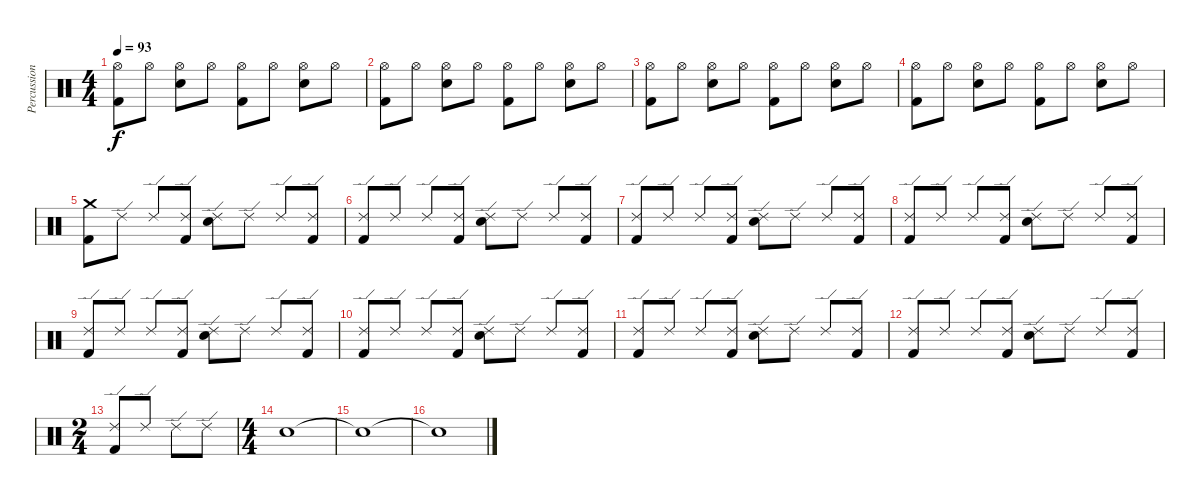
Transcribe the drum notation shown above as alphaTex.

\track ("Percussion" "Percussion") {instrument percussion}
\staff {score}
\articulation defaults
\ts (4 4)
\tempo 93
\clef neutral
\ks c
("Hi-Hat (open)" "Kick (hit) 2").8{dy f} "Hi-Hat (open)".8 ("Hi-Hat (open)" "Snare (hit) 2").8 "Hi-Hat (open)".8 ("Hi-Hat (open)" "Kick (hit) 2").8 "Hi-Hat (open)".8 ("Hi-Hat (open)" "Snare (hit) 2").8 "Hi-Hat (open)".8 |
("Hi-Hat (open)" "Kick (hit) 2").8 "Hi-Hat (open)".8 ("Hi-Hat (open)" "Snare (hit) 2").8 "Hi-Hat (open)".8 ("Hi-Hat (open)" "Kick (hit) 2").8 "Hi-Hat (open)".8 ("Hi-Hat (open)" "Snare (hit) 2").8 "Hi-Hat (open)".8 |
("Hi-Hat (open)" "Kick (hit) 2").8 "Hi-Hat (open)".8 ("Hi-Hat (open)" "Snare (hit) 2").8 "Hi-Hat (open)".8 ("Hi-Hat (open)" "Kick (hit) 2").8 "Hi-Hat (open)".8 ("Hi-Hat (open)" "Snare (hit) 2").8 "Hi-Hat (open)".8 |
("Hi-Hat (open)" "Kick (hit) 2").8 "Hi-Hat (open)".8 ("Hi-Hat (open)" "Snare (hit) 2").8 "Hi-Hat (open)".8 ("Hi-Hat (open)" "Kick (hit) 2").8 "Hi-Hat (open)".8 ("Hi-Hat (open)" "Snare (hit) 2").8 "Hi-Hat (open)".8 |
("Crash medium (hit)" "Kick (hit) 2").8 "Ride (edge) 2".8 "Ride (edge) 2".8 ("Ride (edge) 2" "Kick (hit) 2").8 ("Ride (edge) 2" "Snare (hit) 2").8 "Ride (edge) 2".8 "Ride (edge) 2".8 ("Ride (edge) 2" "Kick (hit) 2").8 |
("Ride (edge) 2" "Kick (hit) 2").8 "Ride (edge) 2".8 "Ride (edge) 2".8 ("Ride (edge) 2" "Kick (hit) 2").8 ("Ride (edge) 2" "Snare (hit) 2").8 "Ride (edge) 2".8 "Ride (edge) 2".8 ("Ride (edge) 2" "Kick (hit) 2").8 |
("Ride (edge) 2" "Kick (hit) 2").8 "Ride (edge) 2".8 "Ride (edge) 2".8 ("Ride (edge) 2" "Kick (hit) 2").8 ("Ride (edge) 2" "Snare (hit) 2").8 "Ride (edge) 2".8 "Ride (edge) 2".8 ("Ride (edge) 2" "Kick (hit) 2").8 |
("Ride (edge) 2" "Kick (hit) 2").8 "Ride (edge) 2".8 "Ride (edge) 2".8 ("Ride (edge) 2" "Kick (hit) 2").8 ("Ride (edge) 2" "Snare (hit) 2").8 "Ride (edge) 2".8 "Ride (edge) 2".8 ("Ride (edge) 2" "Kick (hit) 2").8 |
("Ride (edge) 2" "Kick (hit) 2").8 "Ride (edge) 2".8 "Ride (edge) 2".8 ("Ride (edge) 2" "Kick (hit) 2").8 ("Ride (edge) 2" "Snare (hit) 2").8 "Ride (edge) 2".8 "Ride (edge) 2".8 ("Ride (edge) 2" "Kick (hit) 2").8 |
("Ride (edge) 2" "Kick (hit) 2").8 "Ride (edge) 2".8 "Ride (edge) 2".8 ("Ride (edge) 2" "Kick (hit) 2").8 ("Ride (edge) 2" "Snare (hit) 2").8 "Ride (edge) 2".8 "Ride (edge) 2".8 ("Ride (edge) 2" "Kick (hit) 2").8 |
("Ride (edge) 2" "Kick (hit) 2").8 "Ride (edge) 2".8 "Ride (edge) 2".8 ("Ride (edge) 2" "Kick (hit) 2").8 ("Ride (edge) 2" "Snare (hit) 2").8 "Ride (edge) 2".8 "Ride (edge) 2".8 ("Ride (edge) 2" "Kick (hit) 2").8 |
("Ride (edge) 2" "Kick (hit) 2").8 "Ride (edge) 2".8 "Ride (edge) 2".8 ("Ride (edge) 2" "Kick (hit) 2").8 ("Ride (edge) 2" "Snare (hit) 2").8 "Ride (edge) 2".8 "Ride (edge) 2".8 ("Ride (edge) 2" "Kick (hit) 2").8 |
\ts (2 4)
("Ride (edge) 2" "Kick (hit) 2").8 "Ride (edge) 2".8 "Ride (edge) 2".8 "Ride (edge) 2".8 |
\ts (4 4)
"Snare (hit) 2"{tr (38 64)}.1{volume 5} |
"Snare (hit)"{t}.1 |
"Snare (hit)"{t}.1{volume 10}
